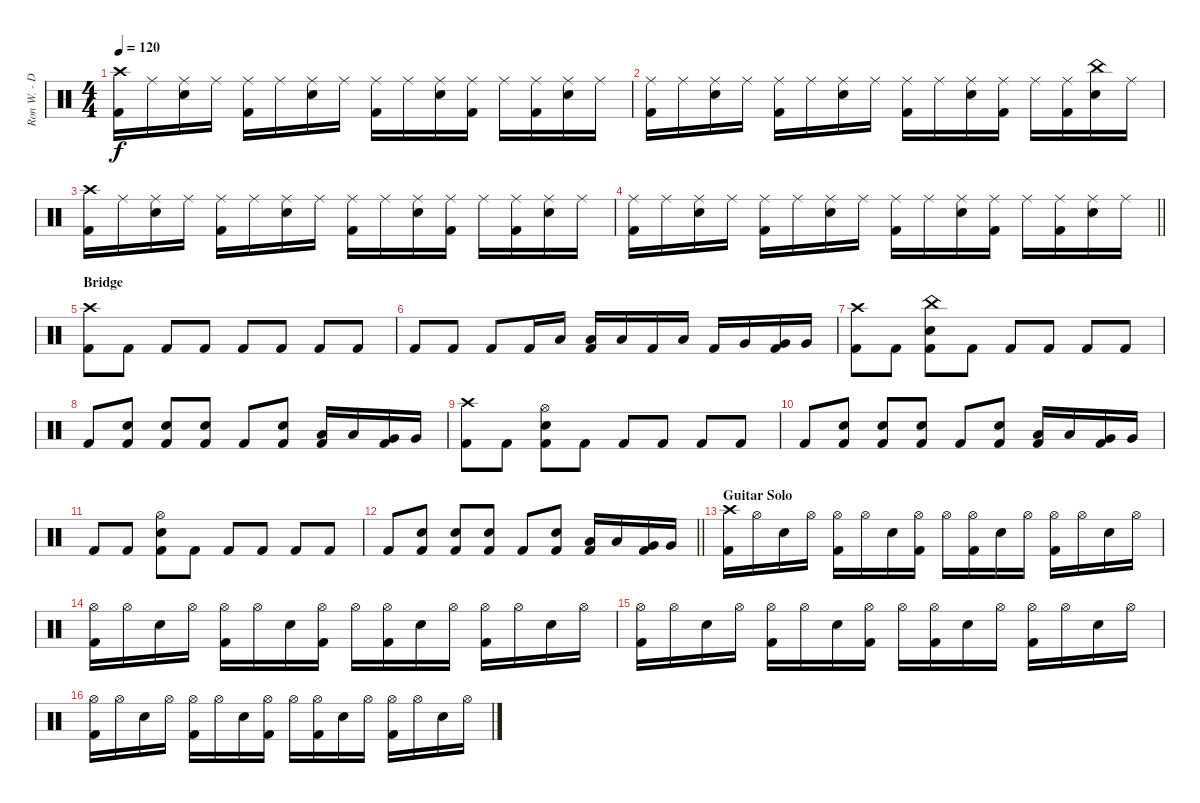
\track ("Ron W. - Drums" "Ron W. - D") {instrument percussion}
\staff {score}
\articulation defaults
\ts (4 4)
\tempo 120
\clef neutral
\ks c
("Crash high (hit)" "Kick (hit) 2").16{dy f} "Ride (middle)".16 ("Ride (middle)" "Snare (hit) 2").16 "Ride (middle)".16 ("Ride (middle)" "Kick (hit) 2").16 "Ride (middle)".16 ("Ride (middle)" "Snare (hit) 2").16 "Ride (middle)".16 ("Ride (middle)" "Kick (hit) 2").16 "Ride (middle)".16 ("Ride (middle)" "Snare (hit) 2").16 ("Ride (middle)" "Kick (hit) 2").16 "Ride (middle)".16 ("Ride (middle)" "Kick (hit) 2").16 ("Ride (middle)" "Snare (hit) 2").16 "Ride (middle)".16 |
("Ride (middle)" "Kick (hit) 2").16 "Ride (middle)".16 ("Ride (middle)" "Snare (hit) 2").16 "Ride (middle)".16 ("Ride (middle)" "Kick (hit) 2").16 "Ride (middle)".16 ("Ride (middle)" "Snare (hit) 2").16 "Ride (middle)".16 ("Ride (middle)" "Kick (hit) 2").16 "Ride (middle)".16 ("Ride (middle)" "Snare (hit) 2").16 ("Ride (middle)" "Kick (hit) 2").16 "Ride (middle)".16 ("Ride (middle)" "Kick (hit) 2").16 ("China (hit)" "Snare (hit) 2").16 "Ride (middle)".16 |
("Crash high (hit)" "Kick (hit) 2").16 "Ride (middle)".16 ("Ride (middle)" "Snare (hit) 2").16 "Ride (middle)".16 ("Ride (middle)" "Kick (hit) 2").16 "Ride (middle)".16 ("Ride (middle)" "Snare (hit) 2").16 "Ride (middle)".16 ("Ride (middle)" "Kick (hit) 2").16 "Ride (middle)".16 ("Ride (middle)" "Snare (hit) 2").16 ("Ride (middle)" "Kick (hit) 2").16 "Ride (middle)".16 ("Ride (middle)" "Kick (hit) 2").16 ("Ride (middle)" "Snare (hit) 2").16 "Ride (middle)".16 |
\barLineRight lightlight
("Ride (middle)" "Kick (hit) 2").16 "Ride (middle)".16 ("Ride (middle)" "Snare (hit) 2").16 "Ride (middle)".16 ("Ride (middle)" "Kick (hit) 2").16 "Ride (middle)".16 ("Ride (middle)" "Snare (hit) 2").16 "Ride (middle)".16 ("Ride (middle)" "Kick (hit) 2").16 "Ride (middle)".16 ("Ride (middle)" "Snare (hit) 2").16 ("Ride (middle)" "Kick (hit) 2").16 "Ride (middle)".16 ("Ride (middle)" "Kick (hit) 2").16 ("Ride (middle)" "Snare (hit) 2").16 "Ride (middle)".16 |
\section ("" "Bridge")
("Crash high (hit)" "Kick (hit) 2").8 "Kick (hit) 2".8 "Kick (hit) 2".8 "Kick (hit) 2".8 "Kick (hit) 2".8 "Kick (hit) 2".8 "Kick (hit) 2".8 "Kick (hit) 2".8 |
"Kick (hit) 2".8 "Kick (hit) 2".8 "Kick (hit) 2".8 "Kick (hit) 2".16 "Low Tom (hit)".16 ("Low Tom (hit)" "Kick (hit) 2").16 "Low Tom (hit)".16 "Kick (hit) 2".16 "Low Tom (hit)".16 "Kick (hit) 2".16 "Very Low Tom (hit)".16 ("Very Low Tom (hit)" "Kick (hit) 2").16 "Very Low Tom (hit)".16 |
("Crash high (hit)" "Kick (hit) 2").8 "Kick (hit) 2".8 ("China (hit)" "Snare (hit) 2" "Kick (hit) 2").8 "Kick (hit) 2".8 "Kick (hit) 2".8 "Kick (hit) 2".8 "Kick (hit) 2".8 "Kick (hit) 2".8 |
"Kick (hit) 2".8 ("Snare (hit) 2" "Kick (hit) 2").8 ("Snare (hit) 2" "Kick (hit) 2").8 ("Snare (hit) 2" "Kick (hit) 2").8 "Kick (hit) 2".8 ("Snare (hit) 2" "Kick (hit) 2").8 ("Low Tom (hit)" "Kick (hit) 2").16 "Low Tom (hit)".16 ("Very Low Tom (hit)" "Kick (hit) 2").16 "Very Low Tom (hit)".16 |
("Crash high (hit)" "Kick (hit) 2").8 "Kick (hit) 2".8 ("Hi-Hat (open)" "Snare (hit) 2" "Kick (hit) 2").8 "Kick (hit) 2".8 "Kick (hit) 2".8 "Kick (hit) 2".8 "Kick (hit) 2".8 "Kick (hit) 2".8 |
"Kick (hit) 2".8 ("Snare (hit) 2" "Kick (hit) 2").8 ("Snare (hit) 2" "Kick (hit) 2").8 ("Snare (hit) 2" "Kick (hit) 2").8 "Kick (hit) 2".8 ("Snare (hit) 2" "Kick (hit) 2").8 ("Low Tom (hit)" "Kick (hit) 2").16 "Low Tom (hit)".16 ("Very Low Tom (hit)" "Kick (hit) 2").16 "Very Low Tom (hit)".16 |
"Kick (hit) 2".8 "Kick (hit) 2".8 ("Hi-Hat (open)" "Snare (hit) 2" "Kick (hit) 2").8 "Kick (hit) 2".8 "Kick (hit) 2".8 "Kick (hit) 2".8 "Kick (hit) 2".8 "Kick (hit) 2".8 |
\barLineRight lightlight "Kick (hit) 2".8
("Snare (hit) 2" "Kick (hit) 2").8 ("Snare (hit) 2" "Kick (hit) 2").8 ("Snare (hit) 2" "Kick (hit) 2").8 "Kick (hit) 2".8 ("Snare (hit) 2" "Kick (hit) 2").8 ("Low Tom (hit)" "Kick (hit) 2").16 "Low Tom (hit)".16 ("Very Low Tom (hit)" "Kick (hit) 2").16 "Very Low Tom (hit)".16 |
\section ("" "Guitar Solo")
("Crash high (hit)" "Kick (hit) 2").16 "Hi-Hat (open)".16 "Snare (hit) 2".16 "Hi-Hat (open)".16 ("Hi-Hat (open)" "Kick (hit) 2").16 "Hi-Hat (open)".16 "Snare (hit) 2".16 ("Hi-Hat (open)" "Kick (hit) 2").16 "Hi-Hat (open)".16 ("Hi-Hat (open)" "Kick (hit) 2").16 "Snare (hit) 2".16 "Hi-Hat (open)".16 ("Hi-Hat (open)" "Kick (hit) 2").16 "Hi-Hat (open)".16 "Snare (hit) 2".16 "Hi-Hat (open)".16 |
("Hi-Hat (open)" "Kick (hit) 2").16 "Hi-Hat (open)".16 "Snare (hit) 2".16 "Hi-Hat (open)".16 ("Hi-Hat (open)" "Kick (hit) 2").16 "Hi-Hat (open)".16 "Snare (hit) 2".16 ("Hi-Hat (open)" "Kick (hit) 2").16 "Hi-Hat (open)".16 ("Hi-Hat (open)" "Kick (hit) 2").16 "Snare (hit) 2".16 "Hi-Hat (open)".16 ("Hi-Hat (open)" "Kick (hit) 2").16 "Hi-Hat (open)".16 "Snare (hit) 2".16 "Hi-Hat (open)".16 |
("Hi-Hat (open)" "Kick (hit) 2").16 "Hi-Hat (open)".16 "Snare (hit) 2".16 "Hi-Hat (open)".16 ("Hi-Hat (open)" "Kick (hit) 2").16 "Hi-Hat (open)".16 "Snare (hit) 2".16 ("Hi-Hat (open)" "Kick (hit) 2").16 "Hi-Hat (open)".16 ("Hi-Hat (open)" "Kick (hit) 2").16 "Snare (hit) 2".16 "Hi-Hat (open)".16 ("Hi-Hat (open)" "Kick (hit) 2").16 "Hi-Hat (open)".16 "Snare (hit) 2".16 "Hi-Hat (open)".16 |
("Hi-Hat (open)" "Kick (hit) 2").16 "Hi-Hat (open)".16 "Snare (hit) 2".16 "Hi-Hat (open)".16 ("Hi-Hat (open)" "Kick (hit) 2").16 "Hi-Hat (open)".16 "Snare (hit) 2".16 ("Hi-Hat (open)" "Kick (hit) 2").16 "Hi-Hat (open)".16 ("Hi-Hat (open)" "Kick (hit) 2").16 "Snare (hit) 2".16 "Hi-Hat (open)".16 ("Hi-Hat (open)" "Kick (hit) 2").16 "Hi-Hat (open)".16 "Snare (hit) 2".16 "Hi-Hat (open)".16
